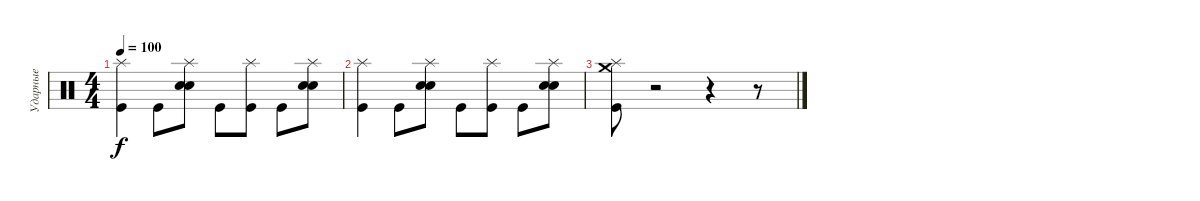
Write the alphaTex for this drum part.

\track ("Ударные" "Ударные") {instrument percussion}
\staff {score}
\articulation defaults
\ts (4 4)
\tempo 100
\clef neutral
\ks c
("Splash (hit)" "Kick (hit)").4{dy f} "Kick (hit)".8 ("Splash (hit)" "Snare (hit) 2" "Snare (hit) 2").8 "Kick (hit)".8 ("Splash (hit)" "Kick (hit)").8 "Kick (hit)".8 ("Splash (hit)" "Electric Snare (hit)" "Electric Snare (hit)").8 |
("Splash (hit)" "Kick (hit)").4 "Kick (hit)".8 ("Splash (hit)" "Snare (hit) 2" "Snare (hit) 2").8 "Kick (hit)".8 ("Splash (hit)" "Kick (hit)").8 "Kick (hit)".8 ("Splash (hit)" "Electric Snare (hit)" "Electric Snare (hit)").8 |
("Splash (hit)" "Crash medium (hit)" "Kick (hit)").8 r.2 r.4 r.8
